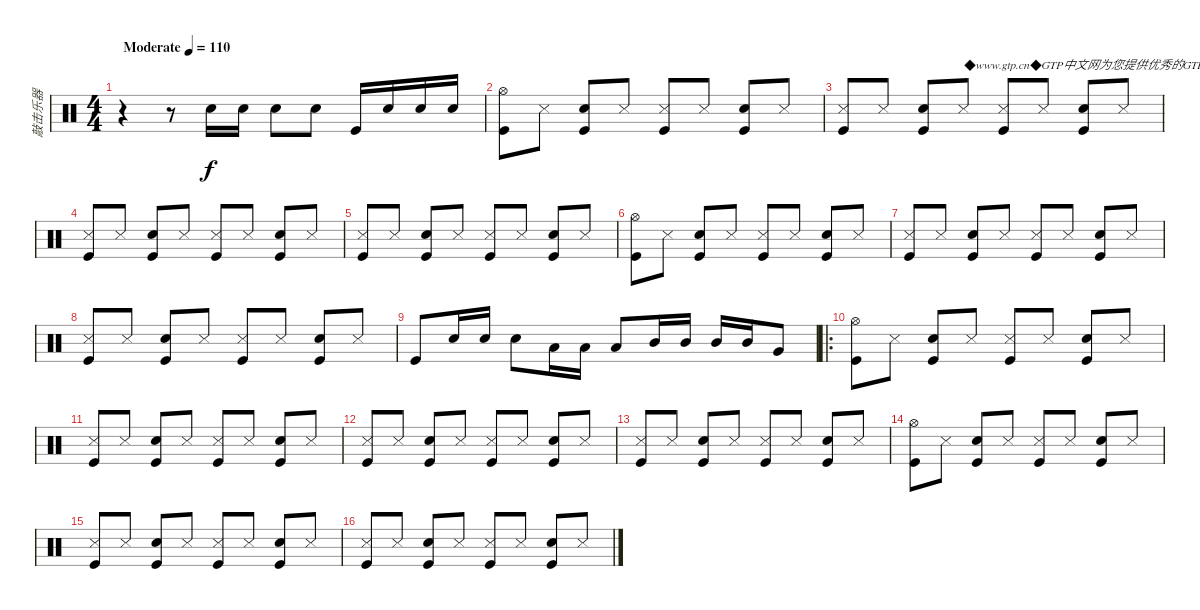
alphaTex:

\track ("敲击乐器" "敲击乐器") {instrument percussion}
\staff {score}
\articulation defaults
\ts (4 4)
\tempo (110 "Moderate")
\clef neutral
\ks c
r.4{dy f} r.8 "Snare (hit) 2".16 "Snare (hit) 2".16 "Snare (hit) 2".8 "Snare (hit) 2".8 "Kick (hit)".16 "Snare (hit) 2".16 "Snare (hit) 2".16 "Snare (hit) 2".16 |
("Hi-Hat (open)" "Kick (hit)").8 "Snare (side stick) 3".8 ("Snare (hit) 2" "Kick (hit)").8 "Snare (side stick) 3".8 ("Snare (side stick) 3" "Kick (hit)").8 "Snare (side stick) 3".8 ("Snare (hit) 2" "Kick (hit)").8 "Snare (side stick) 3".8 |
("Snare (side stick) 3" "Kick (hit)").8 "Snare (side stick) 3".8 ("Snare (hit) 2" "Kick (hit)").8 "Snare (side stick) 3".8{txt "◆www.gtp.cn◆GTP中文网为您提供优秀的GTP！"} ("Snare (side stick) 3" "Kick (hit)").8 "Snare (side stick) 3".8 ("Snare (hit) 2" "Kick (hit)").8 "Snare (side stick) 3".8 |
("Snare (side stick) 3" "Kick (hit)").8 "Snare (side stick) 3".8 ("Snare (hit) 2" "Kick (hit)").8 "Snare (side stick) 3".8 ("Snare (side stick) 3" "Kick (hit)").8 "Snare (side stick) 3".8 ("Snare (hit) 2" "Kick (hit)").8 "Snare (side stick) 3".8 |
("Snare (side stick) 3" "Kick (hit)").8 "Snare (side stick) 3".8 ("Snare (hit) 2" "Kick (hit)").8 "Snare (side stick) 3".8 ("Snare (side stick) 3" "Kick (hit)").8 "Snare (side stick) 3".8 ("Snare (hit) 2" "Kick (hit)").8 "Snare (side stick) 3".8 |
("Hi-Hat (open)" "Kick (hit)").8 "Snare (side stick) 3".8 ("Snare (hit) 2" "Kick (hit)").8 "Snare (side stick) 3".8 ("Snare (side stick) 3" "Kick (hit)").8 "Snare (side stick) 3".8 ("Snare (hit) 2" "Kick (hit)").8 "Snare (side stick) 3".8 |
("Snare (side stick) 3" "Kick (hit)").8 "Snare (side stick) 3".8 ("Snare (hit) 2" "Kick (hit)").8 "Snare (side stick) 3".8 ("Snare (side stick) 3" "Kick (hit)").8 "Snare (side stick) 3".8 ("Snare (hit) 2" "Kick (hit)").8 "Snare (side stick) 3".8 |
("Snare (side stick) 3" "Kick (hit)").8 "Snare (side stick) 3".8 ("Snare (hit) 2" "Kick (hit)").8 "Snare (side stick) 3".8 ("Snare (side stick) 3" "Kick (hit)").8 "Snare (side stick) 3".8 ("Snare (hit) 2" "Kick (hit)").8 "Snare (side stick) 3".8 |
"Kick (hit)".8 "Snare (hit) 2".16 "Snare (hit) 2".16 "Snare (hit) 2".8 "Low Tom (hit)".16 "Low Tom (hit)".16 "Low Tom (hit)".8 "Mid Tom (hit)".16 "Mid Tom (hit)".16 "Mid Tom (hit)".16 "Mid Tom (hit)".16 "Very Low Tom (hit)".8 |
\ro
("Hi-Hat (open)" "Kick (hit)").8 "Snare (side stick) 3".8 ("Snare (hit) 2" "Kick (hit)").8 "Snare (side stick) 3".8 ("Snare (side stick) 3" "Kick (hit)").8 "Snare (side stick) 3".8 ("Snare (hit) 2" "Kick (hit)").8 "Snare (side stick) 3".8 |
("Snare (side stick) 3" "Kick (hit)").8 "Snare (side stick) 3".8 ("Snare (hit) 2" "Kick (hit)").8 "Snare (side stick) 3".8 ("Snare (side stick) 3" "Kick (hit)").8 "Snare (side stick) 3".8 ("Snare (hit) 2" "Kick (hit)").8 "Snare (side stick) 3".8 |
("Snare (side stick) 3" "Kick (hit)").8 "Snare (side stick) 3".8 ("Snare (hit) 2" "Kick (hit)").8 "Snare (side stick) 3".8 ("Snare (side stick) 3" "Kick (hit)").8 "Snare (side stick) 3".8 ("Snare (hit) 2" "Kick (hit)").8 "Snare (side stick) 3".8 |
("Snare (side stick) 3" "Kick (hit)").8 "Snare (side stick) 3".8 ("Snare (hit) 2" "Kick (hit)").8 "Snare (side stick) 3".8 ("Snare (side stick) 3" "Kick (hit)").8 "Snare (side stick) 3".8 ("Snare (hit) 2" "Kick (hit)").8 "Snare (side stick) 3".8 |
("Hi-Hat (open)" "Kick (hit)").8 "Snare (side stick) 3".8 ("Snare (hit) 2" "Kick (hit)").8 "Snare (side stick) 3".8 ("Snare (side stick) 3" "Kick (hit)").8 "Snare (side stick) 3".8 ("Snare (hit) 2" "Kick (hit)").8 "Snare (side stick) 3".8 |
("Snare (side stick) 3" "Kick (hit)").8 "Snare (side stick) 3".8 ("Snare (hit) 2" "Kick (hit)").8 "Snare (side stick) 3".8 ("Snare (side stick) 3" "Kick (hit)").8 "Snare (side stick) 3".8 ("Snare (hit) 2" "Kick (hit)").8 "Snare (side stick) 3".8 |
("Snare (side stick) 3" "Kick (hit)").8 "Snare (side stick) 3".8 ("Snare (hit) 2" "Kick (hit)").8 "Snare (side stick) 3".8 ("Snare (side stick) 3" "Kick (hit)").8 "Snare (side stick) 3".8 ("Snare (hit) 2" "Kick (hit)").8 "Snare (side stick) 3".8
